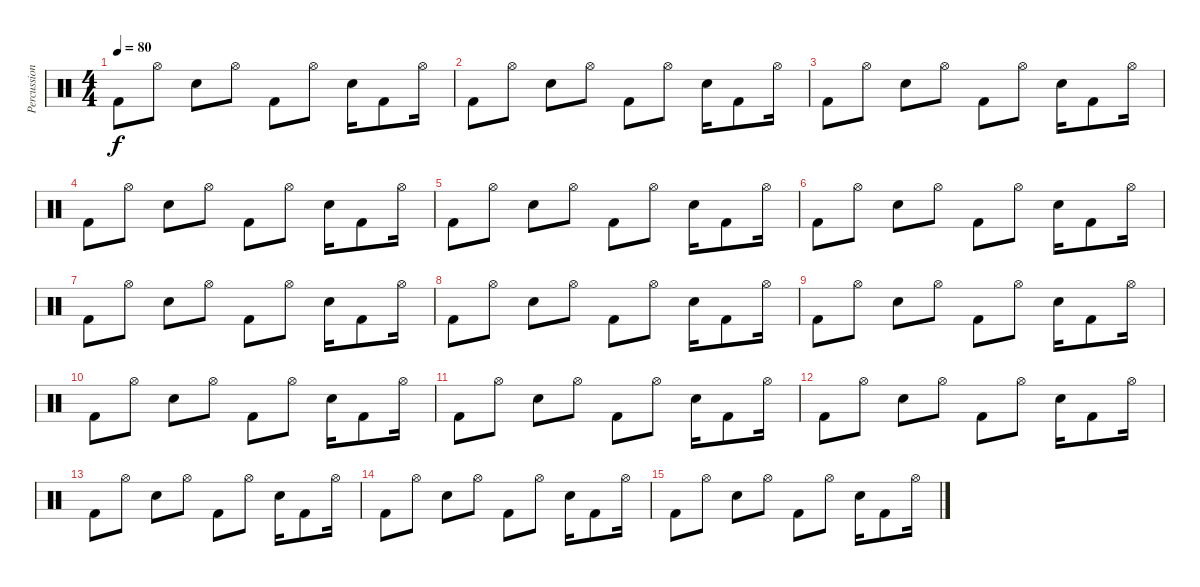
\track ("Percussion" "Percussion") {instrument percussion}
\staff {score}
\articulation defaults
\ts (4 4)
\tempo 80
\clef neutral
\ks c "Kick (hit) 2".8{dy f} "Hi-Hat (open)".8 "Electric Snare (hit)".8 "Hi-Hat (open)".8 "Kick (hit) 2".8 "Hi-Hat (open)".8 "Electric Snare (hit)".16 "Kick (hit) 2".8 "Hi-Hat (open)".16
|
"Kick (hit) 2".8 "Hi-Hat (open)".8 "Electric Snare (hit)".8 "Hi-Hat (open)".8 "Kick (hit) 2".8 "Hi-Hat (open)".8 "Electric Snare (hit)".16 "Kick (hit) 2".8 "Hi-Hat (open)".16 |
"Kick (hit) 2".8 "Hi-Hat (open)".8 "Electric Snare (hit)".8 "Hi-Hat (open)".8 "Kick (hit) 2".8 "Hi-Hat (open)".8 "Electric Snare (hit)".16 "Kick (hit) 2".8 "Hi-Hat (open)".16 |
"Kick (hit) 2".8 "Hi-Hat (open)".8 "Electric Snare (hit)".8 "Hi-Hat (open)".8 "Kick (hit) 2".8 "Hi-Hat (open)".8 "Electric Snare (hit)".16 "Kick (hit) 2".8 "Hi-Hat (open)".16 |
"Kick (hit) 2".8 "Hi-Hat (open)".8 "Electric Snare (hit)".8 "Hi-Hat (open)".8 "Kick (hit) 2".8 "Hi-Hat (open)".8 "Electric Snare (hit)".16 "Kick (hit) 2".8 "Hi-Hat (open)".16 |
"Kick (hit) 2".8 "Hi-Hat (open)".8 "Electric Snare (hit)".8 "Hi-Hat (open)".8 "Kick (hit) 2".8 "Hi-Hat (open)".8 "Electric Snare (hit)".16 "Kick (hit) 2".8 "Hi-Hat (open)".16 |
"Kick (hit) 2".8 "Hi-Hat (open)".8 "Electric Snare (hit)".8 "Hi-Hat (open)".8 "Kick (hit) 2".8 "Hi-Hat (open)".8 "Electric Snare (hit)".16 "Kick (hit) 2".8 "Hi-Hat (open)".16 |
"Kick (hit) 2".8 "Hi-Hat (open)".8 "Electric Snare (hit)".8 "Hi-Hat (open)".8 "Kick (hit) 2".8 "Hi-Hat (open)".8 "Electric Snare (hit)".16 "Kick (hit) 2".8 "Hi-Hat (open)".16 |
"Kick (hit) 2".8 "Hi-Hat (open)".8 "Electric Snare (hit)".8 "Hi-Hat (open)".8 "Kick (hit) 2".8 "Hi-Hat (open)".8 "Electric Snare (hit)".16 "Kick (hit) 2".8 "Hi-Hat (open)".16 |
"Kick (hit) 2".8 "Hi-Hat (open)".8 "Electric Snare (hit)".8 "Hi-Hat (open)".8 "Kick (hit) 2".8 "Hi-Hat (open)".8 "Electric Snare (hit)".16 "Kick (hit) 2".8 "Hi-Hat (open)".16 |
"Kick (hit) 2".8 "Hi-Hat (open)".8 "Electric Snare (hit)".8 "Hi-Hat (open)".8 "Kick (hit) 2".8 "Hi-Hat (open)".8 "Electric Snare (hit)".16 "Kick (hit) 2".8 "Hi-Hat (open)".16 |
"Kick (hit) 2".8 "Hi-Hat (open)".8 "Electric Snare (hit)".8 "Hi-Hat (open)".8 "Kick (hit) 2".8 "Hi-Hat (open)".8 "Electric Snare (hit)".16 "Kick (hit) 2".8 "Hi-Hat (open)".16 |
"Kick (hit) 2".8 "Hi-Hat (open)".8 "Electric Snare (hit)".8 "Hi-Hat (open)".8 "Kick (hit) 2".8 "Hi-Hat (open)".8 "Electric Snare (hit)".16 "Kick (hit) 2".8 "Hi-Hat (open)".16 |
"Kick (hit) 2".8 "Hi-Hat (open)".8 "Electric Snare (hit)".8 "Hi-Hat (open)".8 "Kick (hit) 2".8 "Hi-Hat (open)".8 "Electric Snare (hit)".16 "Kick (hit) 2".8 "Hi-Hat (open)".16 |
"Kick (hit) 2".8 "Hi-Hat (open)".8 "Electric Snare (hit)".8 "Hi-Hat (open)".8 "Kick (hit) 2".8 "Hi-Hat (open)".8 "Electric Snare (hit)".16 "Kick (hit) 2".8 "Hi-Hat (open)".16
